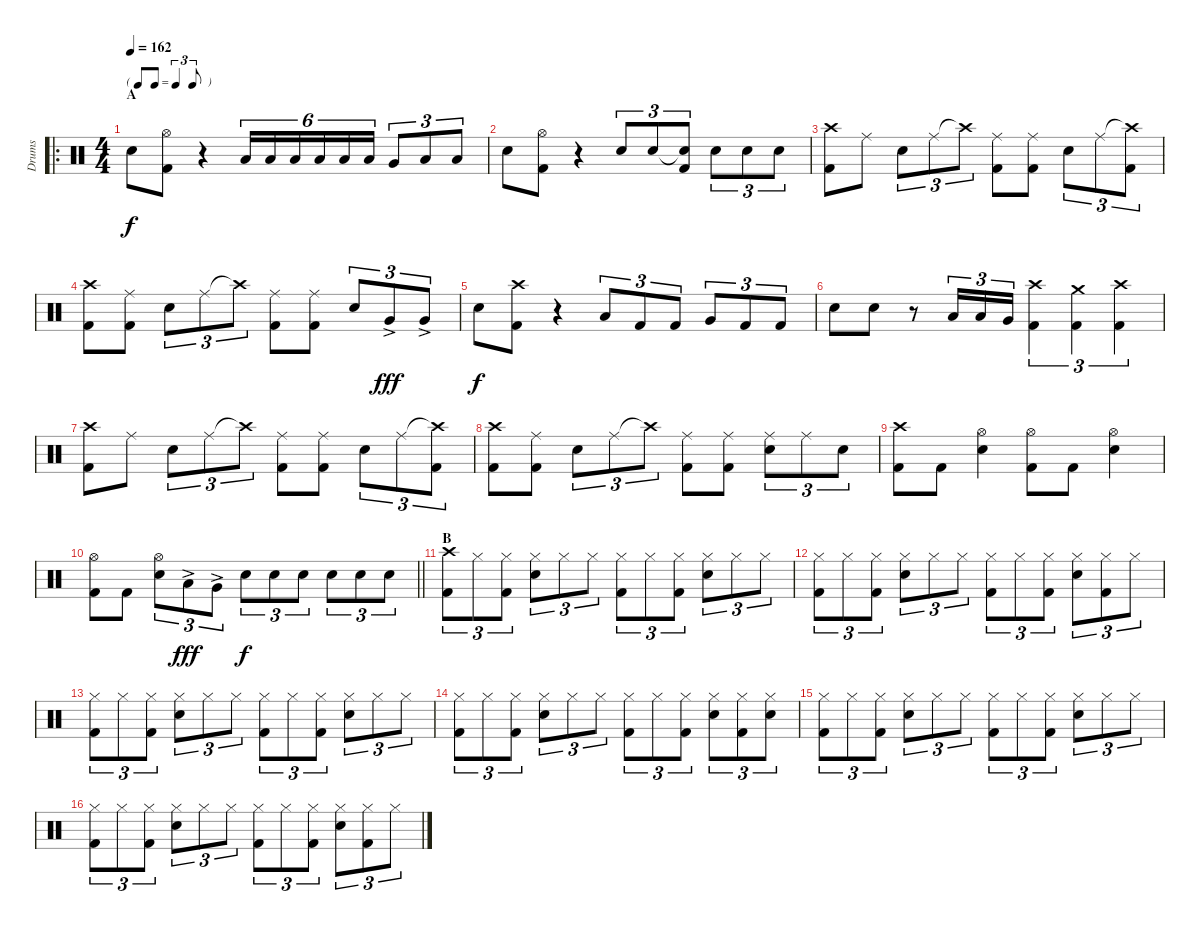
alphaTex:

\track ("Drums" "Drums") {instrument percussion}
\staff {score}
\articulation defaults
\ro
\ts (4 4)
\tf triplet8th
\section ("" "A")
\tempo 162
\clef neutral
\ks c "Snare (hit) 2".8{dy f}
("Hi-Hat (open)" "Kick (hit) 2").8 r.4 "Low Tom (hit)".16{tu (6 4)} "Low Tom (hit)".16{tu (6 4)} "Low Tom (hit)".16{tu (6 4)} "Low Tom (hit)".16{tu (6 4)} "Low Tom (hit)".16{tu (6 4)} "Low Tom (hit)".16{tu (6 4)} "Very Low Tom (hit)".8{tu (3 2)} "Low Floor Tom (hit)".8{tu (3 2)} "Low Floor Tom (hit)".8{tu (3 2)} |
"Snare (hit) 2".8 ("Hi-Hat (open)" "Kick (hit) 2").8 r.4 "Snare (hit) 2".8{tu (3 2)} "Snare (hit) 2".8{tu (3 2)} ("Snare (hit) 2"{t} "Kick (hit) 2").8{tu (3 2)} "Snare (hit) 2".8{tu (3 2)} "Snare (hit) 2".8{tu (3 2)} "Snare (hit) 2".8{tu (3 2)} |
("Crash high (hit)" "Kick (hit) 2").8 "Ride (middle)".8 "Snare (hit) 2".8{tu (3 2)} "Ride (middle)".8{tu (3 2)} "Crash high (hit)"{t}.8{tu (3 2)} ("Ride (middle)" "Kick (hit) 2").8 ("Ride (middle)" "Kick (hit) 2").8 "Snare (hit) 2".8{tu (3 2)} "Ride (middle)".8{tu (3 2)} ("Crash high (hit)"{t} "Kick (hit) 2").8{tu (3 2)} |
("Crash high (hit)" "Kick (hit) 2").8 ("Ride (middle)" "Kick (hit) 2").8 "Snare (hit) 2".8{tu (3 2)} "Ride (middle)".8{tu (3 2)} "Crash high (hit)"{t}.8{tu (3 2)} ("Ride (middle)" "Kick (hit) 2").8 ("Ride (middle)" "Kick (hit) 2").8 "Snare (hit) 2".8{tu (3 2)} "Very Low Tom (hit)"{ac}.8{tu (3 2) dy fff} "Very Low Tom (hit)"{ac}.8{tu (3 2)} |
"Snare (hit) 2".8{dy f} ("Crash high (hit)" "Kick (hit) 2").8 r.4 "Low Tom (hit)".8{tu (3 2)} "Kick (hit) 2".8{tu (3 2)} "Kick (hit) 2".8{tu (3 2)} "Very Low Tom (hit)".8{tu (3 2)} "Kick (hit) 2".8{tu (3 2)} "Kick (hit) 2".8{tu (3 2)} |
"Snare (hit) 2".8 "Snare (hit) 2".8 r.8 "Low Tom (hit)".16{tu (3 2)} "Low Tom (hit)".16{tu (3 2)} "Very Low Tom (hit)".16{tu (3 2)} ("Crash high (hit)" "Kick (hit) 2").4{tu (3 2)} ("Crash medium (hit)" "Kick (hit) 2").4{tu (3 2)} ("Crash high (hit)" "Kick (hit) 2").4{tu (3 2)} |
("Crash high (hit)" "Kick (hit) 2").8 "Ride (middle)".8 "Snare (hit) 2".8{tu (3 2)} "Ride (middle)".8{tu (3 2)} "Crash high (hit)"{t}.8{tu (3 2)} ("Ride (middle)" "Kick (hit) 2").8 ("Ride (middle)" "Kick (hit) 2").8 "Snare (hit) 2".8{tu (3 2)} "Ride (middle)".8{tu (3 2)} ("Crash high (hit)"{t} "Kick (hit) 2").8{tu (3 2)} |
("Crash high (hit)" "Kick (hit) 2").8 ("Ride (middle)" "Kick (hit) 2").8 "Snare (hit) 2".8{tu (3 2)} "Ride (middle)".8{tu (3 2)} "Crash high (hit)"{t}.8{tu (3 2)} ("Ride (middle)" "Kick (hit) 2").8 ("Ride (middle)" "Kick (hit) 2").8 ("Ride (middle)" "Snare (hit) 2").8{tu (3 2)} "Ride (middle)".8{tu (3 2)} "Snare (hit) 2".8{tu (3 2)} |
("Crash high (hit)" "Kick (hit) 2").8 "Kick (hit) 2".8 ("Hi-Hat (open)" "Snare (hit) 2").4 ("Hi-Hat (open)" "Kick (hit) 2").8 "Kick (hit) 2".8 ("Hi-Hat (open)" "Snare (hit) 2").4 |
\barLineRight lightlight
("Hi-Hat (open)" "Kick (hit) 2").8 "Kick (hit) 2".8 ("Hi-Hat (open)" "Snare (hit) 2").8{tu (3 2)} "Low Tom (hit)"{ac}.8{tu (3 2) dy fff} "Very Low Tom (hit)"{ac}.8{tu (3 2)} "Snare (hit) 2".8{tu (3 2) dy f} "Snare (hit) 2".8{tu (3 2)} "Snare (hit) 2".8{tu (3 2)} "Snare (hit) 2".8{tu (3 2)} "Snare (hit) 2".8{tu (3 2)} "Snare (hit) 2".8{tu (3 2)} |
\section ("" "B")
("Crash high (hit)" "Kick (hit) 2").8{tu (3 2)} "Hi-Hat (closed)".8{tu (3 2)} ("Hi-Hat (closed)" "Kick (hit) 2").8{tu (3 2)} ("Hi-Hat (closed)" "Snare (hit) 2").8{tu (3 2)} "Hi-Hat (closed)".8{tu (3 2)} "Hi-Hat (closed)".8{tu (3 2)} ("Hi-Hat (closed)" "Kick (hit) 2").8{tu (3 2)} "Hi-Hat (closed)".8{tu (3 2)} ("Hi-Hat (closed)" "Kick (hit) 2").8{tu (3 2)} ("Hi-Hat (closed)" "Snare (hit) 2").8{tu (3 2)} "Hi-Hat (closed)".8{tu (3 2)} "Hi-Hat (closed)".8{tu (3 2)} |
("Hi-Hat (closed)" "Kick (hit) 2").8{tu (3 2)} "Hi-Hat (closed)".8{tu (3 2)} ("Hi-Hat (closed)" "Kick (hit) 2").8{tu (3 2)} ("Hi-Hat (closed)" "Snare (hit) 2").8{tu (3 2)} "Hi-Hat (closed)".8{tu (3 2)} "Hi-Hat (closed)".8{tu (3 2)} ("Hi-Hat (closed)" "Kick (hit) 2").8{tu (3 2)} "Hi-Hat (closed)".8{tu (3 2)} ("Hi-Hat (closed)" "Kick (hit) 2").8{tu (3 2)} ("Hi-Hat (closed)" "Snare (hit) 2").8{tu (3 2)} ("Hi-Hat (closed)" "Kick (hit) 2").8{tu (3 2)} "Hi-Hat (closed)".8{tu (3 2)} |
("Hi-Hat (closed)" "Kick (hit) 2").8{tu (3 2)} "Hi-Hat (closed)".8{tu (3 2)} ("Hi-Hat (closed)" "Kick (hit) 2").8{tu (3 2)} ("Hi-Hat (closed)" "Snare (hit) 2").8{tu (3 2)} "Hi-Hat (closed)".8{tu (3 2)} "Hi-Hat (closed)".8{tu (3 2)} ("Hi-Hat (closed)" "Kick (hit) 2").8{tu (3 2)} "Hi-Hat (closed)".8{tu (3 2)} ("Hi-Hat (closed)" "Kick (hit) 2").8{tu (3 2)} ("Hi-Hat (closed)" "Snare (hit) 2").8{tu (3 2)} "Hi-Hat (closed)".8{tu (3 2)} "Hi-Hat (closed)".8{tu (3 2)} |
("Hi-Hat (closed)" "Kick (hit) 2").8{tu (3 2)} "Hi-Hat (closed)".8{tu (3 2)} ("Hi-Hat (closed)" "Kick (hit) 2").8{tu (3 2)} ("Hi-Hat (closed)" "Snare (hit) 2").8{tu (3 2)} "Hi-Hat (closed)".8{tu (3 2)} "Hi-Hat (closed)".8{tu (3 2)} ("Hi-Hat (closed)" "Kick (hit) 2").8{tu (3 2)} "Hi-Hat (closed)".8{tu (3 2)} ("Hi-Hat (closed)" "Kick (hit) 2").8{tu (3 2)} ("Hi-Hat (closed)" "Snare (hit) 2").8{tu (3 2)} ("Hi-Hat (closed)" "Kick (hit) 2").8{tu (3 2)} ("Hi-Hat (closed)" "Snare (hit) 2").8{tu (3 2)} |
("Hi-Hat (closed)" "Kick (hit) 2").8{tu (3 2)} "Hi-Hat (closed)".8{tu (3 2)} ("Hi-Hat (closed)" "Kick (hit) 2").8{tu (3 2)} ("Hi-Hat (closed)" "Snare (hit) 2").8{tu (3 2)} "Hi-Hat (closed)".8{tu (3 2)} "Hi-Hat (closed)".8{tu (3 2)} ("Hi-Hat (closed)" "Kick (hit) 2").8{tu (3 2)} "Hi-Hat (closed)".8{tu (3 2)} ("Hi-Hat (closed)" "Kick (hit) 2").8{tu (3 2)} ("Hi-Hat (closed)" "Snare (hit) 2").8{tu (3 2)} "Hi-Hat (closed)".8{tu (3 2)} "Hi-Hat (closed)".8{tu (3 2)} |
("Hi-Hat (closed)" "Kick (hit) 2").8{tu (3 2)} "Hi-Hat (closed)".8{tu (3 2)} ("Hi-Hat (closed)" "Kick (hit) 2").8{tu (3 2)} ("Hi-Hat (closed)" "Snare (hit) 2").8{tu (3 2)} "Hi-Hat (closed)".8{tu (3 2)} "Hi-Hat (closed)".8{tu (3 2)} ("Hi-Hat (closed)" "Kick (hit) 2").8{tu (3 2)} "Hi-Hat (closed)".8{tu (3 2)} ("Hi-Hat (closed)" "Kick (hit) 2").8{tu (3 2)} ("Hi-Hat (closed)" "Snare (hit) 2").8{tu (3 2)} ("Hi-Hat (closed)" "Kick (hit) 2").8{tu (3 2)} "Hi-Hat (closed)".8{tu (3 2)}
